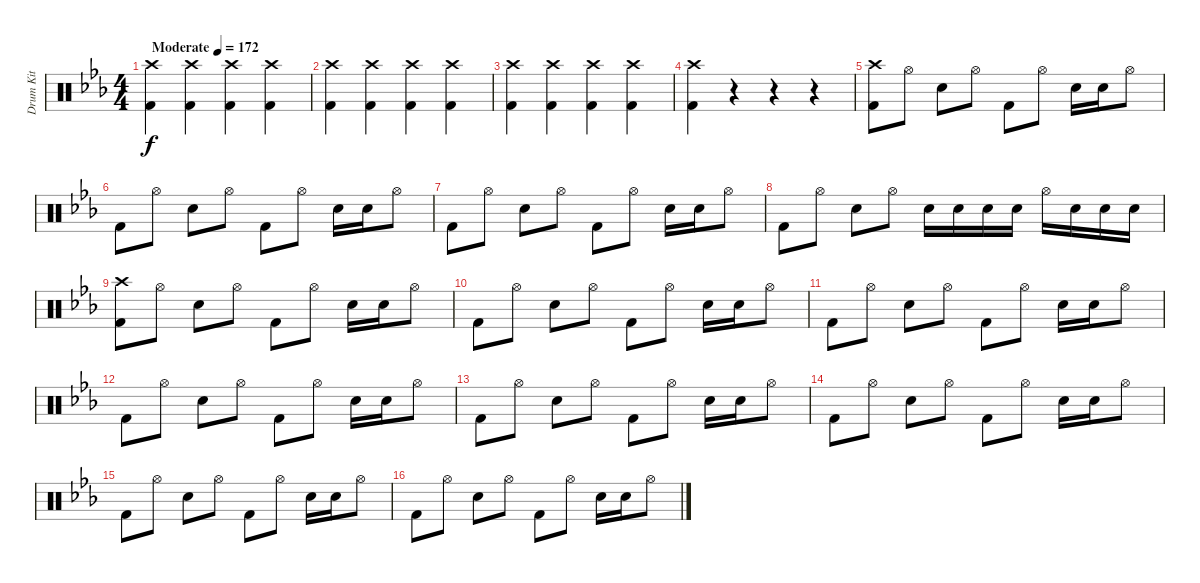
\track ("Drum Kit" "Drum Kit") {instrument percussion}
\staff {score}
\articulation defaults
\ts (4 4)
\tempo (172 "Moderate")
\clef neutral
\ks cminor
("Crash high (hit)" "Kick (hit) 2").4{dy f} ("Crash high (hit)" "Kick (hit) 2").4 ("Crash high (hit)" "Kick (hit) 2").4 ("Crash high (hit)" "Kick (hit) 2").4 |
("Crash high (hit)" "Kick (hit) 2").4 ("Crash high (hit)" "Kick (hit) 2").4 ("Crash high (hit)" "Kick (hit) 2").4 ("Crash high (hit)" "Kick (hit) 2").4 |
("Crash high (hit)" "Kick (hit) 2").4 ("Crash high (hit)" "Kick (hit) 2").4 ("Crash high (hit)" "Kick (hit) 2").4 ("Crash high (hit)" "Kick (hit) 2").4 |
("Crash high (hit)" "Kick (hit) 2").4 r.4 r.4 r.4 |
("Crash high (hit)" "Kick (hit) 2").8 "Hi-Hat (open)".8 "Electric Snare (hit)".8 "Hi-Hat (open)".8 "Kick (hit) 2".8 "Hi-Hat (open)".8 "Electric Snare (hit)".16 "Electric Snare (hit)".16 "Hi-Hat (open)".8 |
"Kick (hit) 2".8 "Hi-Hat (open)".8 "Electric Snare (hit)".8 "Hi-Hat (open)".8 "Kick (hit) 2".8 "Hi-Hat (open)".8 "Electric Snare (hit)".16 "Electric Snare (hit)".16 "Hi-Hat (open)".8 |
"Kick (hit) 2".8 "Hi-Hat (open)".8 "Electric Snare (hit)".8 "Hi-Hat (open)".8 "Kick (hit) 2".8 "Hi-Hat (open)".8 "Electric Snare (hit)".16 "Electric Snare (hit)".16 "Hi-Hat (open)".8 |
"Kick (hit) 2".8 "Hi-Hat (open)".8 "Electric Snare (hit)".8 "Hi-Hat (open)".8 "Electric Snare (hit)".16 "Electric Snare (hit)".16 "Electric Snare (hit)".16 "Electric Snare (hit)".16 "Hi-Hat (open)".16 "Electric Snare (hit)".16 "Electric Snare (hit)".16 "Electric Snare (hit)".16 |
("Crash high (hit)" "Kick (hit) 2").8 "Hi-Hat (open)".8 "Electric Snare (hit)".8 "Hi-Hat (open)".8 "Kick (hit) 2".8 "Hi-Hat (open)".8 "Electric Snare (hit)".16 "Electric Snare (hit)".16 "Hi-Hat (open)".8 |
"Kick (hit) 2".8 "Hi-Hat (open)".8 "Electric Snare (hit)".8 "Hi-Hat (open)".8 "Kick (hit) 2".8 "Hi-Hat (open)".8 "Electric Snare (hit)".16 "Electric Snare (hit)".16 "Hi-Hat (open)".8 |
"Kick (hit) 2".8 "Hi-Hat (open)".8 "Electric Snare (hit)".8 "Hi-Hat (open)".8 "Kick (hit) 2".8 "Hi-Hat (open)".8 "Electric Snare (hit)".16 "Electric Snare (hit)".16 "Hi-Hat (open)".8 |
"Kick (hit) 2".8 "Hi-Hat (open)".8 "Electric Snare (hit)".8 "Hi-Hat (open)".8 "Kick (hit) 2".8 "Hi-Hat (open)".8 "Electric Snare (hit)".16 "Electric Snare (hit)".16 "Hi-Hat (open)".8 |
"Kick (hit) 2".8 "Hi-Hat (open)".8 "Electric Snare (hit)".8 "Hi-Hat (open)".8 "Kick (hit) 2".8 "Hi-Hat (open)".8 "Electric Snare (hit)".16 "Electric Snare (hit)".16 "Hi-Hat (open)".8 |
"Kick (hit) 2".8 "Hi-Hat (open)".8 "Electric Snare (hit)".8 "Hi-Hat (open)".8 "Kick (hit) 2".8 "Hi-Hat (open)".8 "Electric Snare (hit)".16 "Electric Snare (hit)".16 "Hi-Hat (open)".8 |
"Kick (hit) 2".8 "Hi-Hat (open)".8 "Electric Snare (hit)".8 "Hi-Hat (open)".8 "Kick (hit) 2".8 "Hi-Hat (open)".8 "Electric Snare (hit)".16 "Electric Snare (hit)".16 "Hi-Hat (open)".8 |
"Kick (hit) 2".8 "Hi-Hat (open)".8 "Electric Snare (hit)".8 "Hi-Hat (open)".8 "Kick (hit) 2".8 "Hi-Hat (open)".8 "Electric Snare (hit)".16 "Electric Snare (hit)".16 "Hi-Hat (open)".8
